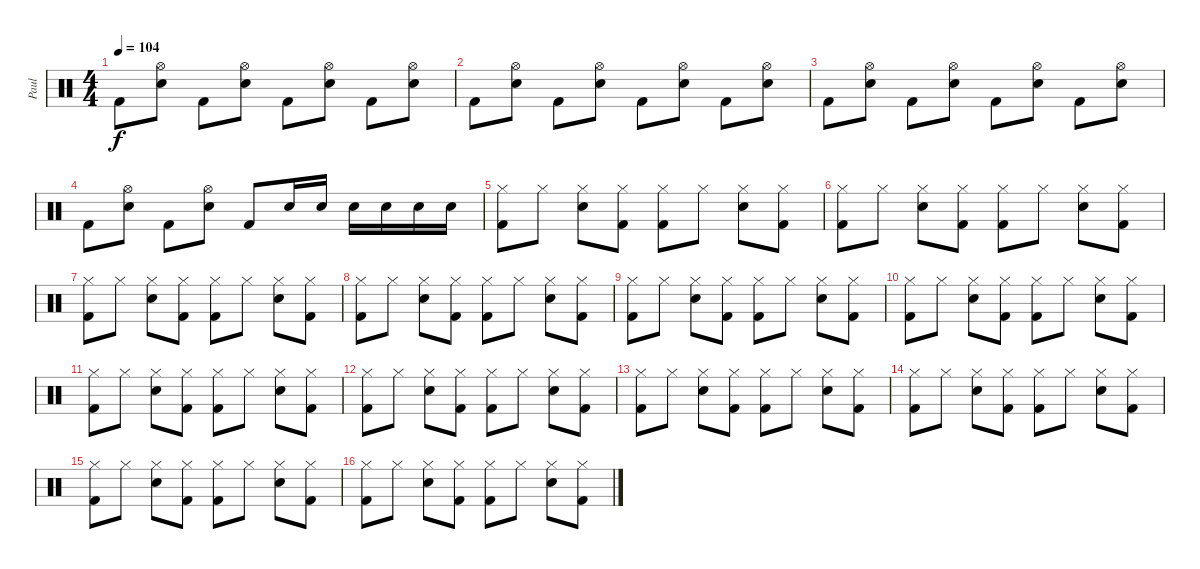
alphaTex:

\track ("Paul" "Paul") {instrument percussion}
\staff {score}
\articulation defaults
\ts (4 4)
\tempo 104
\clef neutral
\ks c "Kick (hit) 2".8{dy f}
("Hi-Hat (open)" "Snare (hit) 2").8 "Kick (hit) 2".8 ("Hi-Hat (open)" "Snare (hit) 2").8 "Kick (hit) 2".8 ("Hi-Hat (open)" "Snare (hit) 2").8 "Kick (hit) 2".8 ("Hi-Hat (open)" "Snare (hit) 2").8 |
"Kick (hit) 2".8 ("Hi-Hat (open)" "Snare (hit) 2").8 "Kick (hit) 2".8 ("Hi-Hat (open)" "Snare (hit) 2").8 "Kick (hit) 2".8 ("Hi-Hat (open)" "Snare (hit) 2").8 "Kick (hit) 2".8 ("Hi-Hat (open)" "Snare (hit) 2").8 |
"Kick (hit) 2".8 ("Hi-Hat (open)" "Snare (hit) 2").8 "Kick (hit) 2".8 ("Hi-Hat (open)" "Snare (hit) 2").8 "Kick (hit) 2".8 ("Hi-Hat (open)" "Snare (hit) 2").8 "Kick (hit) 2".8 ("Hi-Hat (open)" "Snare (hit) 2").8 |
"Kick (hit) 2".8 ("Hi-Hat (open)" "Snare (hit) 2").8 "Kick (hit) 2".8 ("Hi-Hat (open)" "Snare (hit) 2").8 "Kick (hit) 2".8 "Snare (hit) 2".16 "Snare (hit) 2".16 "Snare (hit) 2".16 "Snare (hit) 2".16 "Snare (hit) 2".16 "Snare (hit) 2".16 |
("Hi-Hat (closed)" "Kick (hit) 2").8 "Hi-Hat (closed)".8 ("Hi-Hat (closed)" "Snare (hit) 2").8 ("Hi-Hat (closed)" "Kick (hit) 2").8 ("Hi-Hat (closed)" "Kick (hit) 2").8 "Hi-Hat (closed)".8 ("Hi-Hat (closed)" "Snare (hit) 2").8 ("Hi-Hat (closed)" "Kick (hit) 2").8 |
("Hi-Hat (closed)" "Kick (hit) 2").8 "Hi-Hat (closed)".8 ("Hi-Hat (closed)" "Snare (hit) 2").8 ("Hi-Hat (closed)" "Kick (hit) 2").8 ("Hi-Hat (closed)" "Kick (hit) 2").8 "Hi-Hat (closed)".8 ("Hi-Hat (closed)" "Snare (hit) 2").8 ("Hi-Hat (closed)" "Kick (hit) 2").8 |
("Hi-Hat (closed)" "Kick (hit) 2").8 "Hi-Hat (closed)".8 ("Hi-Hat (closed)" "Snare (hit) 2").8 ("Hi-Hat (closed)" "Kick (hit) 2").8 ("Hi-Hat (closed)" "Kick (hit) 2").8 "Hi-Hat (closed)".8 ("Hi-Hat (closed)" "Snare (hit) 2").8 ("Hi-Hat (closed)" "Kick (hit) 2").8 |
("Hi-Hat (closed)" "Kick (hit) 2").8 "Hi-Hat (closed)".8 ("Hi-Hat (closed)" "Snare (hit) 2").8 ("Hi-Hat (closed)" "Kick (hit) 2").8 ("Hi-Hat (closed)" "Kick (hit) 2").8 "Hi-Hat (closed)".8 ("Hi-Hat (closed)" "Snare (hit) 2").8 ("Hi-Hat (closed)" "Kick (hit) 2").8 |
("Hi-Hat (closed)" "Kick (hit) 2").8 "Hi-Hat (closed)".8 ("Hi-Hat (closed)" "Snare (hit) 2").8 ("Hi-Hat (closed)" "Kick (hit) 2").8 ("Hi-Hat (closed)" "Kick (hit) 2").8 "Hi-Hat (closed)".8 ("Hi-Hat (closed)" "Snare (hit) 2").8 ("Hi-Hat (closed)" "Kick (hit) 2").8 |
("Hi-Hat (closed)" "Kick (hit) 2").8 "Hi-Hat (closed)".8 ("Hi-Hat (closed)" "Snare (hit) 2").8 ("Hi-Hat (closed)" "Kick (hit) 2").8 ("Hi-Hat (closed)" "Kick (hit) 2").8 "Hi-Hat (closed)".8 ("Hi-Hat (closed)" "Snare (hit) 2").8 ("Hi-Hat (closed)" "Kick (hit) 2").8 |
("Hi-Hat (closed)" "Kick (hit) 2").8 "Hi-Hat (closed)".8 ("Hi-Hat (closed)" "Snare (hit) 2").8 ("Hi-Hat (closed)" "Kick (hit) 2").8 ("Hi-Hat (closed)" "Kick (hit) 2").8 "Hi-Hat (closed)".8 ("Hi-Hat (closed)" "Snare (hit) 2").8 ("Hi-Hat (closed)" "Kick (hit) 2").8 |
("Hi-Hat (closed)" "Kick (hit) 2").8 "Hi-Hat (closed)".8 ("Hi-Hat (closed)" "Snare (hit) 2").8 ("Hi-Hat (closed)" "Kick (hit) 2").8 ("Hi-Hat (closed)" "Kick (hit) 2").8 "Hi-Hat (closed)".8 ("Hi-Hat (closed)" "Snare (hit) 2").8 ("Hi-Hat (closed)" "Kick (hit) 2").8 |
("Hi-Hat (closed)" "Kick (hit) 2").8 "Hi-Hat (closed)".8 ("Hi-Hat (closed)" "Snare (hit) 2").8 ("Hi-Hat (closed)" "Kick (hit) 2").8 ("Hi-Hat (closed)" "Kick (hit) 2").8 "Hi-Hat (closed)".8 ("Hi-Hat (closed)" "Snare (hit) 2").8 ("Hi-Hat (closed)" "Kick (hit) 2").8 |
("Hi-Hat (closed)" "Kick (hit) 2").8 "Hi-Hat (closed)".8 ("Hi-Hat (closed)" "Snare (hit) 2").8 ("Hi-Hat (closed)" "Kick (hit) 2").8 ("Hi-Hat (closed)" "Kick (hit) 2").8 "Hi-Hat (closed)".8 ("Hi-Hat (closed)" "Snare (hit) 2").8 ("Hi-Hat (closed)" "Kick (hit) 2").8 |
("Hi-Hat (closed)" "Kick (hit) 2").8 "Hi-Hat (closed)".8 ("Hi-Hat (closed)" "Snare (hit) 2").8 ("Hi-Hat (closed)" "Kick (hit) 2").8 ("Hi-Hat (closed)" "Kick (hit) 2").8 "Hi-Hat (closed)".8 ("Hi-Hat (closed)" "Snare (hit) 2").8 ("Hi-Hat (closed)" "Kick (hit) 2").8 |
("Hi-Hat (closed)" "Kick (hit) 2").8 "Hi-Hat (closed)".8 ("Hi-Hat (closed)" "Snare (hit) 2").8 ("Hi-Hat (closed)" "Kick (hit) 2").8 ("Hi-Hat (closed)" "Kick (hit) 2").8 "Hi-Hat (closed)".8 ("Hi-Hat (closed)" "Snare (hit) 2").8 ("Hi-Hat (closed)" "Kick (hit) 2").8
